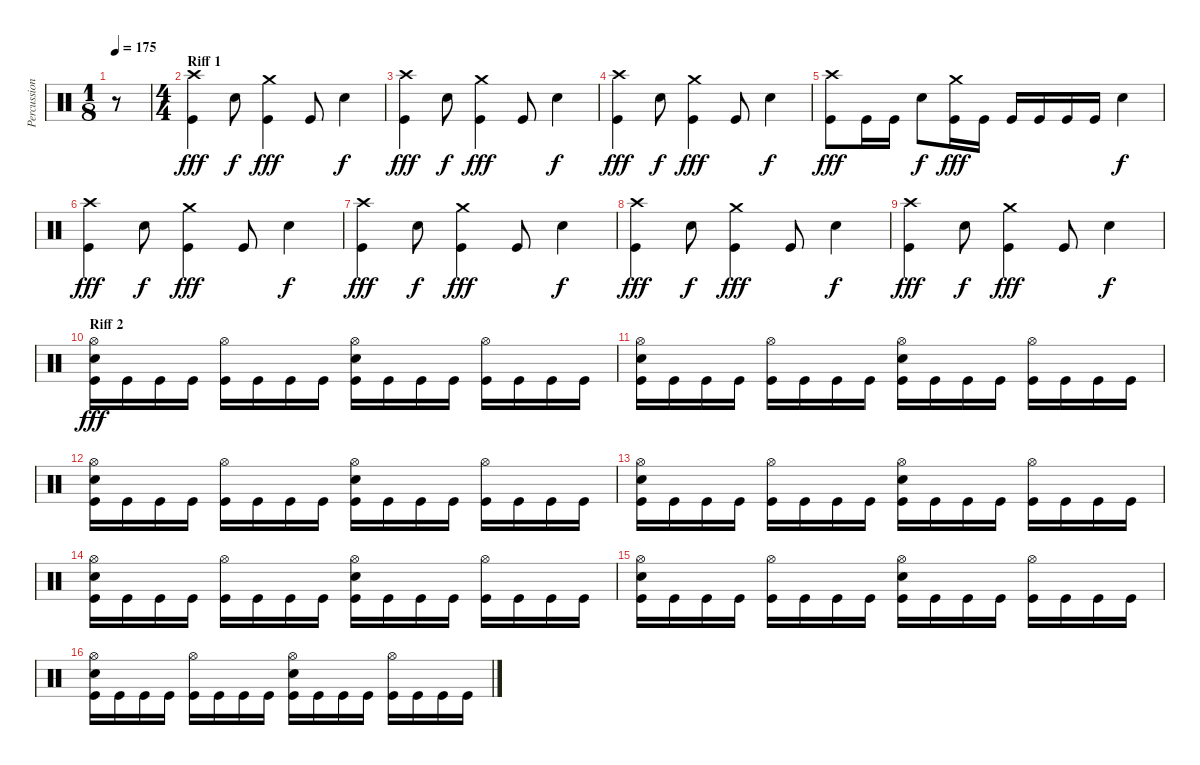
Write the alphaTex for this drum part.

\track ("Percussions" "Percussion") {instrument percussion}
\staff {score}
\articulation defaults
\ts (1 8)
\tempo 175
\clef neutral
\ks c
r.8{dy fff} |
\ts (4 4)
\section ("" "Riff 1")
("Crash high (hit)" "Kick (hit)").4 "Electric Snare (hit)".8{dy f} ("Crash medium (hit)" "Kick (hit)").4{dy fff} "Kick (hit)".8 "Electric Snare (hit)".4{dy f} |
("Crash high (hit)" "Kick (hit)").4{dy fff} "Electric Snare (hit)".8{dy f} ("Crash medium (hit)" "Kick (hit)").4{dy fff} "Kick (hit)".8 "Electric Snare (hit)".4{dy f} |
("Crash high (hit)" "Kick (hit)").4{dy fff} "Electric Snare (hit)".8{dy f} ("Crash medium (hit)" "Kick (hit)").4{dy fff} "Kick (hit)".8 "Electric Snare (hit)".4{dy f} |
("Crash high (hit)" "Kick (hit)").8{dy fff} "Kick (hit)".16 "Kick (hit)".16 "Electric Snare (hit)".8{dy f} ("Crash medium (hit)" "Kick (hit)").16{dy fff} "Kick (hit)".16 "Kick (hit)".16 "Kick (hit)".16 "Kick (hit)".16 "Kick (hit)".16 "Electric Snare (hit)".4{dy f} |
("Crash high (hit)" "Kick (hit)").4{dy fff} "Electric Snare (hit)".8{dy f} ("Crash medium (hit)" "Kick (hit)").4{dy fff} "Kick (hit)".8 "Electric Snare (hit)".4{dy f} |
("Crash high (hit)" "Kick (hit)").4{dy fff} "Electric Snare (hit)".8{dy f} ("Crash medium (hit)" "Kick (hit)").4{dy fff} "Kick (hit)".8 "Electric Snare (hit)".4{dy f} |
("Crash high (hit)" "Kick (hit)").4{dy fff} "Electric Snare (hit)".8{dy f} ("Crash medium (hit)" "Kick (hit)").4{dy fff} "Kick (hit)".8 "Electric Snare (hit)".4{dy f} |
("Crash high (hit)" "Kick (hit)").4{dy fff} "Electric Snare (hit)".8{dy f} ("Crash medium (hit)" "Kick (hit)").4{dy fff} "Kick (hit)".8 "Electric Snare (hit)".4{dy f} |
\section ("" "Riff 2")
("Hi-Hat (open)" "Electric Snare (hit)" "Kick (hit)").16{dy fff} "Kick (hit)".16 "Kick (hit)".16 "Kick (hit)".16 ("Hi-Hat (open)" "Kick (hit)").16 "Kick (hit)".16 "Kick (hit)".16 "Kick (hit)".16 ("Hi-Hat (open)" "Electric Snare (hit)" "Kick (hit)").16 "Kick (hit)".16 "Kick (hit)".16 "Kick (hit)".16 ("Hi-Hat (open)" "Kick (hit)").16 "Kick (hit)".16 "Kick (hit)".16 "Kick (hit)".16 |
("Hi-Hat (open)" "Electric Snare (hit)" "Kick (hit)").16 "Kick (hit)".16 "Kick (hit)".16 "Kick (hit)".16 ("Hi-Hat (open)" "Kick (hit)").16 "Kick (hit)".16 "Kick (hit)".16 "Kick (hit)".16 ("Hi-Hat (open)" "Electric Snare (hit)" "Kick (hit)").16 "Kick (hit)".16 "Kick (hit)".16 "Kick (hit)".16 ("Hi-Hat (open)" "Kick (hit)").16 "Kick (hit)".16 "Kick (hit)".16 "Kick (hit)".16 |
("Hi-Hat (open)" "Electric Snare (hit)" "Kick (hit)").16 "Kick (hit)".16 "Kick (hit)".16 "Kick (hit)".16 ("Hi-Hat (open)" "Kick (hit)").16 "Kick (hit)".16 "Kick (hit)".16 "Kick (hit)".16 ("Hi-Hat (open)" "Electric Snare (hit)" "Kick (hit)").16 "Kick (hit)".16 "Kick (hit)".16 "Kick (hit)".16 ("Hi-Hat (open)" "Kick (hit)").16 "Kick (hit)".16 "Kick (hit)".16 "Kick (hit)".16 |
("Hi-Hat (open)" "Electric Snare (hit)" "Kick (hit)").16 "Kick (hit)".16 "Kick (hit)".16 "Kick (hit)".16 ("Hi-Hat (open)" "Kick (hit)").16 "Kick (hit)".16 "Kick (hit)".16 "Kick (hit)".16 ("Hi-Hat (open)" "Electric Snare (hit)" "Kick (hit)").16 "Kick (hit)".16 "Kick (hit)".16 "Kick (hit)".16 ("Hi-Hat (open)" "Kick (hit)").16 "Kick (hit)".16 "Kick (hit)".16 "Kick (hit)".16 |
("Hi-Hat (open)" "Electric Snare (hit)" "Kick (hit)").16 "Kick (hit)".16 "Kick (hit)".16 "Kick (hit)".16 ("Hi-Hat (open)" "Kick (hit)").16 "Kick (hit)".16 "Kick (hit)".16 "Kick (hit)".16 ("Hi-Hat (open)" "Electric Snare (hit)" "Kick (hit)").16 "Kick (hit)".16 "Kick (hit)".16 "Kick (hit)".16 ("Hi-Hat (open)" "Kick (hit)").16 "Kick (hit)".16 "Kick (hit)".16 "Kick (hit)".16 |
("Hi-Hat (open)" "Electric Snare (hit)" "Kick (hit)").16 "Kick (hit)".16 "Kick (hit)".16 "Kick (hit)".16 ("Hi-Hat (open)" "Kick (hit)").16 "Kick (hit)".16 "Kick (hit)".16 "Kick (hit)".16 ("Hi-Hat (open)" "Electric Snare (hit)" "Kick (hit)").16 "Kick (hit)".16 "Kick (hit)".16 "Kick (hit)".16 ("Hi-Hat (open)" "Kick (hit)").16 "Kick (hit)".16 "Kick (hit)".16 "Kick (hit)".16 |
("Hi-Hat (open)" "Electric Snare (hit)" "Kick (hit)").16 "Kick (hit)".16 "Kick (hit)".16 "Kick (hit)".16 ("Hi-Hat (open)" "Kick (hit)").16 "Kick (hit)".16 "Kick (hit)".16 "Kick (hit)".16 ("Hi-Hat (open)" "Electric Snare (hit)" "Kick (hit)").16 "Kick (hit)".16 "Kick (hit)".16 "Kick (hit)".16 ("Hi-Hat (open)" "Kick (hit)").16 "Kick (hit)".16 "Kick (hit)".16 "Kick (hit)".16
